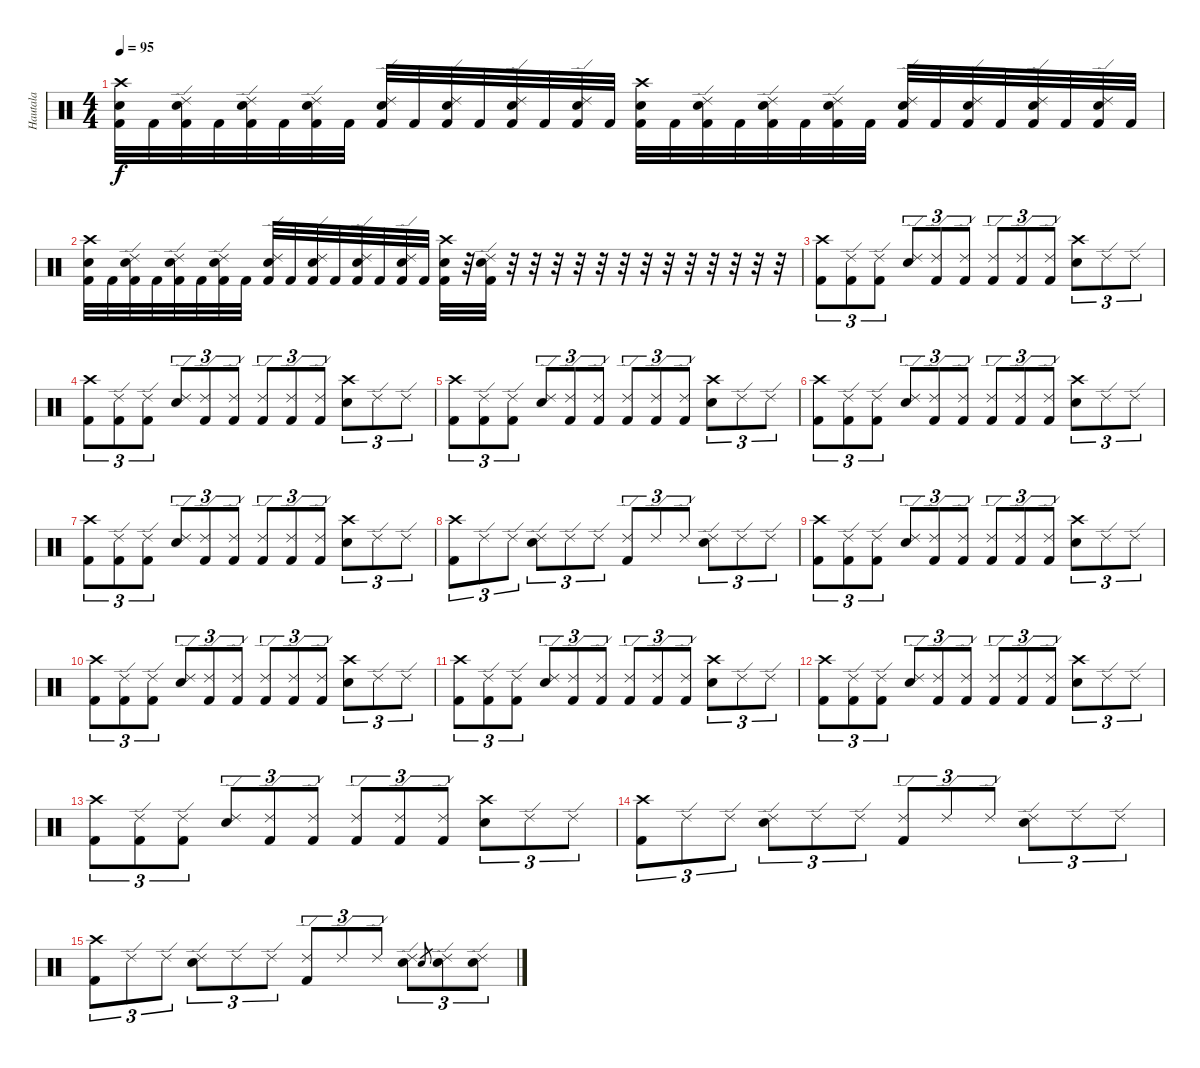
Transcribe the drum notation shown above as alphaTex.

\track ("Hautala" "Hautala") {instrument percussion}
\staff {score}
\articulation defaults
\ts (4 4)
\tempo 95
\clef neutral
\ks c
("Crash high (hit)" "Electric Snare (hit)" "Kick (hit) 2").32{dy f} "Kick (hit) 2".32 ("Ride (edge) 2" "Electric Snare (hit)" "Kick (hit) 2").32 "Kick (hit) 2".32 ("Ride (edge) 2" "Electric Snare (hit)" "Kick (hit) 2").32 "Kick (hit) 2".32 ("Ride (edge) 2" "Electric Snare (hit)" "Kick (hit) 2").32 "Kick (hit) 2".32 ("Ride (edge) 2" "Electric Snare (hit)" "Kick (hit) 2").32 "Kick (hit) 2".32 ("Ride (edge) 2" "Electric Snare (hit)" "Kick (hit) 2").32 "Kick (hit) 2".32 ("Ride (edge) 2" "Electric Snare (hit)" "Kick (hit) 2").32 "Kick (hit) 2".32 ("Ride (edge) 2" "Electric Snare (hit)" "Kick (hit) 2").32 "Kick (hit) 2".32 ("Crash high (hit)" "Electric Snare (hit)" "Kick (hit) 2").32 "Kick (hit) 2".32 ("Ride (edge) 2" "Electric Snare (hit)" "Kick (hit) 2").32 "Kick (hit) 2".32 ("Ride (edge) 2" "Electric Snare (hit)" "Kick (hit) 2").32 "Kick (hit) 2".32 ("Ride (edge) 2" "Electric Snare (hit)" "Kick (hit) 2").32 "Kick (hit) 2".32 ("Ride (edge) 2" "Electric Snare (hit)" "Kick (hit) 2").32 "Kick (hit) 2".32 ("Ride (edge) 2" "Electric Snare (hit)" "Kick (hit) 2").32 "Kick (hit) 2".32 ("Ride (edge) 2" "Electric Snare (hit)" "Kick (hit) 2").32 "Kick (hit) 2".32 ("Ride (edge) 2" "Electric Snare (hit)" "Kick (hit) 2").32 "Kick (hit) 2".32 |
("Crash high (hit)" "Electric Snare (hit)" "Kick (hit) 2").32 "Kick (hit) 2".32 ("Ride (edge) 2" "Electric Snare (hit)" "Kick (hit) 2").32 "Kick (hit) 2".32 ("Ride (edge) 2" "Electric Snare (hit)" "Kick (hit) 2").32 "Kick (hit) 2".32 ("Ride (edge) 2" "Electric Snare (hit)" "Kick (hit) 2").32 "Kick (hit) 2".32 ("Ride (edge) 2" "Electric Snare (hit)" "Kick (hit) 2").32 "Kick (hit) 2".32 ("Ride (edge) 2" "Electric Snare (hit)" "Kick (hit) 2").32 "Kick (hit) 2".32 ("Ride (edge) 2" "Electric Snare (hit)" "Kick (hit) 2").32 "Kick (hit) 2".32 ("Ride (edge) 2" "Electric Snare (hit)" "Kick (hit) 2").32 "Kick (hit) 2".32 ("Crash high (hit)" "Electric Snare (hit)" "Kick (hit) 2").32 r.32 ("Ride (edge) 2" "Electric Snare (hit)" "Kick (hit) 2").32 r.32 r.32 r.32 r.32 r.32 r.32 r.32 r.32 r.32 r.32 r.32 r.32 r.32 |
("Crash high (hit)" "Kick (hit) 2").8{tu (3 2)} ("Ride (edge) 2" "Kick (hit) 2").8{tu (3 2)} ("Ride (edge) 2" "Kick (hit) 2").8{tu (3 2)} ("Ride (edge) 2" "Snare (hit) 2").8{tu (3 2)} ("Ride (edge) 2" "Kick (hit) 2").8{tu (3 2)} ("Ride (edge) 2" "Kick (hit) 2").8{tu (3 2)} ("Ride (edge) 2" "Kick (hit) 2").8{tu (3 2)} ("Ride (edge) 2" "Kick (hit) 2").8{tu (3 2)} ("Ride (edge) 2" "Kick (hit) 2").8{tu (3 2)} ("Crash high (hit)" "Snare (hit) 2").8{tu (3 2)} "Ride (edge) 2".8{tu (3 2)} "Ride (edge) 2".8{tu (3 2)} |
("Crash high (hit)" "Kick (hit) 2").8{tu (3 2)} ("Ride (edge) 2" "Kick (hit) 2").8{tu (3 2)} ("Ride (edge) 2" "Kick (hit) 2").8{tu (3 2)} ("Ride (edge) 2" "Snare (hit) 2").8{tu (3 2)} ("Ride (edge) 2" "Kick (hit) 2").8{tu (3 2)} ("Ride (edge) 2" "Kick (hit) 2").8{tu (3 2)} ("Ride (edge) 2" "Kick (hit) 2").8{tu (3 2)} ("Ride (edge) 2" "Kick (hit) 2").8{tu (3 2)} ("Ride (edge) 2" "Kick (hit) 2").8{tu (3 2)} ("Crash high (hit)" "Snare (hit) 2").8{tu (3 2)} "Ride (edge) 2".8{tu (3 2)} "Ride (edge) 2".8{tu (3 2)} |
("Crash high (hit)" "Kick (hit) 2").8{tu (3 2)} ("Ride (edge) 2" "Kick (hit) 2").8{tu (3 2)} ("Ride (edge) 2" "Kick (hit) 2").8{tu (3 2)} ("Ride (edge) 2" "Snare (hit) 2").8{tu (3 2)} ("Ride (edge) 2" "Kick (hit) 2").8{tu (3 2)} ("Ride (edge) 2" "Kick (hit) 2").8{tu (3 2)} ("Ride (edge) 2" "Kick (hit) 2").8{tu (3 2)} ("Ride (edge) 2" "Kick (hit) 2").8{tu (3 2)} ("Ride (edge) 2" "Kick (hit) 2").8{tu (3 2)} ("Crash high (hit)" "Snare (hit) 2").8{tu (3 2)} "Ride (edge) 2".8{tu (3 2)} "Ride (edge) 2".8{tu (3 2)} |
("Crash high (hit)" "Kick (hit) 2").8{tu (3 2)} ("Ride (edge) 2" "Kick (hit) 2").8{tu (3 2)} ("Ride (edge) 2" "Kick (hit) 2").8{tu (3 2)} ("Ride (edge) 2" "Snare (hit) 2").8{tu (3 2)} ("Ride (edge) 2" "Kick (hit) 2").8{tu (3 2)} ("Ride (edge) 2" "Kick (hit) 2").8{tu (3 2)} ("Ride (edge) 2" "Kick (hit) 2").8{tu (3 2)} ("Ride (edge) 2" "Kick (hit) 2").8{tu (3 2)} ("Ride (edge) 2" "Kick (hit) 2").8{tu (3 2)} ("Crash high (hit)" "Snare (hit) 2").8{tu (3 2)} "Ride (edge) 2".8{tu (3 2)} "Ride (edge) 2".8{tu (3 2)} |
("Crash high (hit)" "Kick (hit) 2").8{tu (3 2)} ("Ride (edge) 2" "Kick (hit) 2").8{tu (3 2)} ("Ride (edge) 2" "Kick (hit) 2").8{tu (3 2)} ("Ride (edge) 2" "Snare (hit) 2").8{tu (3 2)} ("Ride (edge) 2" "Kick (hit) 2").8{tu (3 2)} ("Ride (edge) 2" "Kick (hit) 2").8{tu (3 2)} ("Ride (edge) 2" "Kick (hit) 2").8{tu (3 2)} ("Ride (edge) 2" "Kick (hit) 2").8{tu (3 2)} ("Ride (edge) 2" "Kick (hit) 2").8{tu (3 2)} ("Crash high (hit)" "Snare (hit) 2").8{tu (3 2)} "Ride (edge) 2".8{tu (3 2)} "Ride (edge) 2".8{tu (3 2)} |
("Crash high (hit)" "Kick (hit) 2").8{tu (3 2)} "Ride (edge) 2".8{tu (3 2)} "Ride (edge) 2".8{tu (3 2)} ("Ride (edge) 2" "Snare (hit) 2").8{tu (3 2)} "Ride (edge) 2".8{tu (3 2)} "Ride (edge) 2".8{tu (3 2)} ("Ride (edge) 2" "Kick (hit) 2").8{tu (3 2)} "Ride (edge) 2".8{tu (3 2)} "Ride (edge) 2".8{tu (3 2)} ("Ride (edge) 2" "Snare (hit) 2").8{tu (3 2)} "Ride (edge) 2".8{tu (3 2)} "Ride (edge) 2".8{tu (3 2)} |
("Crash high (hit)" "Kick (hit) 2").8{tu (3 2)} ("Ride (edge) 2" "Kick (hit) 2").8{tu (3 2)} ("Ride (edge) 2" "Kick (hit) 2").8{tu (3 2)} ("Ride (edge) 2" "Snare (hit) 2").8{tu (3 2)} ("Ride (edge) 2" "Kick (hit) 2").8{tu (3 2)} ("Ride (edge) 2" "Kick (hit) 2").8{tu (3 2)} ("Ride (edge) 2" "Kick (hit) 2").8{tu (3 2)} ("Ride (edge) 2" "Kick (hit) 2").8{tu (3 2)} ("Ride (edge) 2" "Kick (hit) 2").8{tu (3 2)} ("Crash high (hit)" "Snare (hit) 2").8{tu (3 2)} "Ride (edge) 2".8{tu (3 2)} "Ride (edge) 2".8{tu (3 2)} |
("Crash high (hit)" "Kick (hit) 2").8{tu (3 2)} ("Ride (edge) 2" "Kick (hit) 2").8{tu (3 2)} ("Ride (edge) 2" "Kick (hit) 2").8{tu (3 2)} ("Ride (edge) 2" "Snare (hit) 2").8{tu (3 2)} ("Ride (edge) 2" "Kick (hit) 2").8{tu (3 2)} ("Ride (edge) 2" "Kick (hit) 2").8{tu (3 2)} ("Ride (edge) 2" "Kick (hit) 2").8{tu (3 2)} ("Ride (edge) 2" "Kick (hit) 2").8{tu (3 2)} ("Ride (edge) 2" "Kick (hit) 2").8{tu (3 2)} ("Crash high (hit)" "Snare (hit) 2").8{tu (3 2)} "Ride (edge) 2".8{tu (3 2)} "Ride (edge) 2".8{tu (3 2)} |
("Crash high (hit)" "Kick (hit) 2").8{tu (3 2)} ("Ride (edge) 2" "Kick (hit) 2").8{tu (3 2)} ("Ride (edge) 2" "Kick (hit) 2").8{tu (3 2)} ("Ride (edge) 2" "Snare (hit) 2").8{tu (3 2)} ("Ride (edge) 2" "Kick (hit) 2").8{tu (3 2)} ("Ride (edge) 2" "Kick (hit) 2").8{tu (3 2)} ("Ride (edge) 2" "Kick (hit) 2").8{tu (3 2)} ("Ride (edge) 2" "Kick (hit) 2").8{tu (3 2)} ("Ride (edge) 2" "Kick (hit) 2").8{tu (3 2)} ("Crash high (hit)" "Snare (hit) 2").8{tu (3 2)} "Ride (edge) 2".8{tu (3 2)} "Ride (edge) 2".8{tu (3 2)} |
("Crash high (hit)" "Kick (hit) 2").8{tu (3 2)} ("Ride (edge) 2" "Kick (hit) 2").8{tu (3 2)} ("Ride (edge) 2" "Kick (hit) 2").8{tu (3 2)} ("Ride (edge) 2" "Snare (hit) 2").8{tu (3 2)} ("Ride (edge) 2" "Kick (hit) 2").8{tu (3 2)} ("Ride (edge) 2" "Kick (hit) 2").8{tu (3 2)} ("Ride (edge) 2" "Kick (hit) 2").8{tu (3 2)} ("Ride (edge) 2" "Kick (hit) 2").8{tu (3 2)} ("Ride (edge) 2" "Kick (hit) 2").8{tu (3 2)} ("Crash high (hit)" "Snare (hit) 2").8{tu (3 2)} "Ride (edge) 2".8{tu (3 2)} "Ride (edge) 2".8{tu (3 2)} |
("Crash high (hit)" "Kick (hit) 2").8{tu (3 2)} ("Ride (edge) 2" "Kick (hit) 2").8{tu (3 2)} ("Ride (edge) 2" "Kick (hit) 2").8{tu (3 2)} ("Ride (edge) 2" "Snare (hit) 2").8{tu (3 2)} ("Ride (edge) 2" "Kick (hit) 2").8{tu (3 2)} ("Ride (edge) 2" "Kick (hit) 2").8{tu (3 2)} ("Ride (edge) 2" "Kick (hit) 2").8{tu (3 2)} ("Ride (edge) 2" "Kick (hit) 2").8{tu (3 2)} ("Ride (edge) 2" "Kick (hit) 2").8{tu (3 2)} ("Crash high (hit)" "Snare (hit) 2").8{tu (3 2)} "Ride (edge) 2".8{tu (3 2)} "Ride (edge) 2".8{tu (3 2)} |
("Crash high (hit)" "Kick (hit) 2").8{tu (3 2)} "Ride (edge) 2".8{tu (3 2)} "Ride (edge) 2".8{tu (3 2)} ("Ride (edge) 2" "Snare (hit) 2").8{tu (3 2)} "Ride (edge) 2".8{tu (3 2)} "Ride (edge) 2".8{tu (3 2)} ("Ride (edge) 2" "Kick (hit) 2").8{tu (3 2)} "Ride (edge) 2".8{tu (3 2)} "Ride (edge) 2".8{tu (3 2)} ("Ride (edge) 2" "Snare (hit) 2").8{tu (3 2)} "Ride (edge) 2".8{tu (3 2)} "Ride (edge) 2".8{tu (3 2)} |
("Crash high (hit)" "Kick (hit) 2").8{tu (3 2)} "Ride (edge) 2".8{tu (3 2)} "Ride (edge) 2".8{tu (3 2)} ("Ride (edge) 2" "Snare (hit) 2").8{tu (3 2)} "Ride (edge) 2".8{tu (3 2)} "Ride (edge) 2".8{tu (3 2)} ("Ride (edge) 2" "Kick (hit) 2").8{tu (3 2)} "Ride (edge) 2".8{tu (3 2)} "Ride (edge) 2".8{tu (3 2)} ("Ride (edge) 2" "Snare (hit) 2").8{tu (3 2)} "Electric Snare (hit)".8{gr} ("Ride (edge) 2" "Electric Snare (hit)").8{tu (3 2)} ("Ride (edge) 2" "Electric Snare (hit)").8{tu (3 2)}
